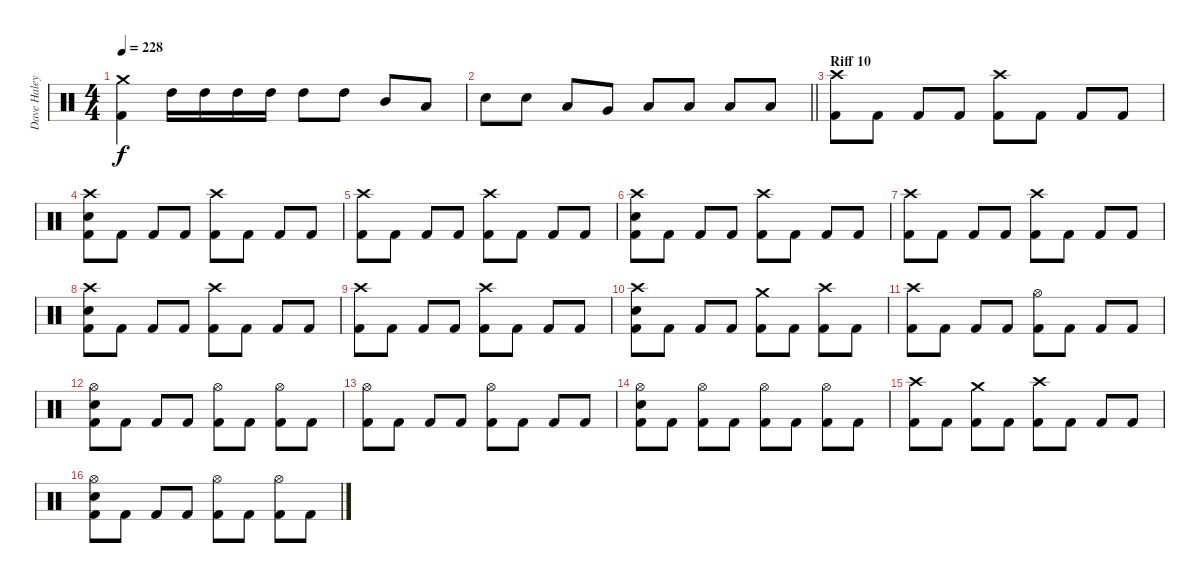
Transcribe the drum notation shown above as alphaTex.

\track ("Dave Haley" "Dave Haley") {instrument percussion}
\staff {score}
\articulation defaults
\ts (4 4)
\tempo 228
\clef neutral
\ks c
("Crash medium (hit)" "Kick (hit) 2").4{dy f} "High Tom (hit)".16 "High Tom (hit)".16 "High Tom (hit)".16 "High Tom (hit)".16 "High Tom (hit)".8 "High Tom (hit)".8 "Mid Tom (hit)".8 "Low Tom (hit)".8 |
\barLineRight lightlight "Snare (hit) 2".8 "Snare (hit) 2".8 "Low Tom (hit)".8 "Very Low Tom (hit)".8 "Low Floor Tom (hit)".8 "Low Floor Tom (hit)".8 "Low Floor Tom (hit)".8 "Low Floor Tom (hit)".8
|
\section ("" "Riff 10")
("Crash high (hit)" "Kick (hit) 2").8 "Kick (hit) 2".8 "Kick (hit) 2".8 "Kick (hit) 2".8 ("Crash high (hit)" "Kick (hit) 2").8 "Kick (hit) 2".8 "Kick (hit) 2".8 "Kick (hit) 2".8 |
("Crash high (hit)" "Snare (hit) 2" "Kick (hit) 2").8 "Kick (hit) 2".8 "Kick (hit) 2".8 "Kick (hit) 2".8 ("Crash high (hit)" "Kick (hit) 2").8 "Kick (hit) 2".8 "Kick (hit) 2".8 "Kick (hit) 2".8 |
("Crash high (hit)" "Kick (hit) 2").8 "Kick (hit) 2".8 "Kick (hit) 2".8 "Kick (hit) 2".8 ("Crash high (hit)" "Kick (hit) 2").8 "Kick (hit) 2".8 "Kick (hit) 2".8 "Kick (hit) 2".8 |
("Crash high (hit)" "Snare (hit) 2" "Kick (hit) 2").8 "Kick (hit) 2".8 "Kick (hit) 2".8 "Kick (hit) 2".8 ("Crash high (hit)" "Kick (hit) 2").8 "Kick (hit) 2".8 "Kick (hit) 2".8 "Kick (hit) 2".8 |
("Crash high (hit)" "Kick (hit) 2").8 "Kick (hit) 2".8 "Kick (hit) 2".8 "Kick (hit) 2".8 ("Crash high (hit)" "Kick (hit) 2").8 "Kick (hit) 2".8 "Kick (hit) 2".8 "Kick (hit) 2".8 |
("Crash high (hit)" "Snare (hit) 2" "Kick (hit) 2").8 "Kick (hit) 2".8 "Kick (hit) 2".8 "Kick (hit) 2".8 ("Crash high (hit)" "Kick (hit) 2").8 "Kick (hit) 2".8 "Kick (hit) 2".8 "Kick (hit) 2".8 |
("Crash high (hit)" "Kick (hit) 2").8 "Kick (hit) 2".8 "Kick (hit) 2".8 "Kick (hit) 2".8 ("Crash high (hit)" "Kick (hit) 2").8 "Kick (hit) 2".8 "Kick (hit) 2".8 "Kick (hit) 2".8 |
("Crash high (hit)" "Snare (hit) 2" "Kick (hit) 2").8 "Kick (hit) 2".8 "Kick (hit) 2".8 "Kick (hit) 2".8 ("Crash medium (hit)" "Kick (hit) 2").8 "Kick (hit) 2".8 ("Crash high (hit)" "Kick (hit) 2").8 "Kick (hit) 2".8 |
("Crash high (hit)" "Kick (hit) 2").8 "Kick (hit) 2".8 "Kick (hit) 2".8 "Kick (hit) 2".8 ("Hi-Hat (open)" "Kick (hit) 2").8 "Kick (hit) 2".8 "Kick (hit) 2".8 "Kick (hit) 2".8 |
("Hi-Hat (open)" "Snare (hit) 2" "Kick (hit) 2").8 "Kick (hit) 2".8 "Kick (hit) 2".8 "Kick (hit) 2".8 ("Hi-Hat (open)" "Kick (hit) 2").8 "Kick (hit) 2".8 ("Hi-Hat (open)" "Kick (hit) 2").8 "Kick (hit) 2".8 |
("Hi-Hat (open)" "Kick (hit) 2").8 "Kick (hit) 2".8 "Kick (hit) 2".8 "Kick (hit) 2".8 ("Hi-Hat (open)" "Kick (hit) 2").8 "Kick (hit) 2".8 "Kick (hit) 2".8 "Kick (hit) 2".8 |
("Hi-Hat (open)" "Snare (hit) 2" "Kick (hit) 2").8 "Kick (hit) 2".8 ("Hi-Hat (open)" "Kick (hit) 2").8 "Kick (hit) 2".8 ("Hi-Hat (open)" "Kick (hit) 2").8 "Kick (hit) 2".8 ("Hi-Hat (open)" "Kick (hit) 2").8 "Kick (hit) 2".8 |
("Crash high (hit)" "Kick (hit) 2").8 "Kick (hit) 2".8 ("Crash medium (hit)" "Kick (hit) 2").8 "Kick (hit) 2".8 ("Crash high (hit)" "Kick (hit) 2").8 "Kick (hit) 2".8 "Kick (hit) 2".8 "Kick (hit) 2".8 |
("Hi-Hat (open)" "Snare (hit) 2" "Kick (hit) 2").8 "Kick (hit) 2".8 "Kick (hit) 2".8 "Kick (hit) 2".8 ("Hi-Hat (open)" "Kick (hit) 2").8 "Kick (hit) 2".8 ("Hi-Hat (open)" "Kick (hit) 2").8 "Kick (hit) 2".8
